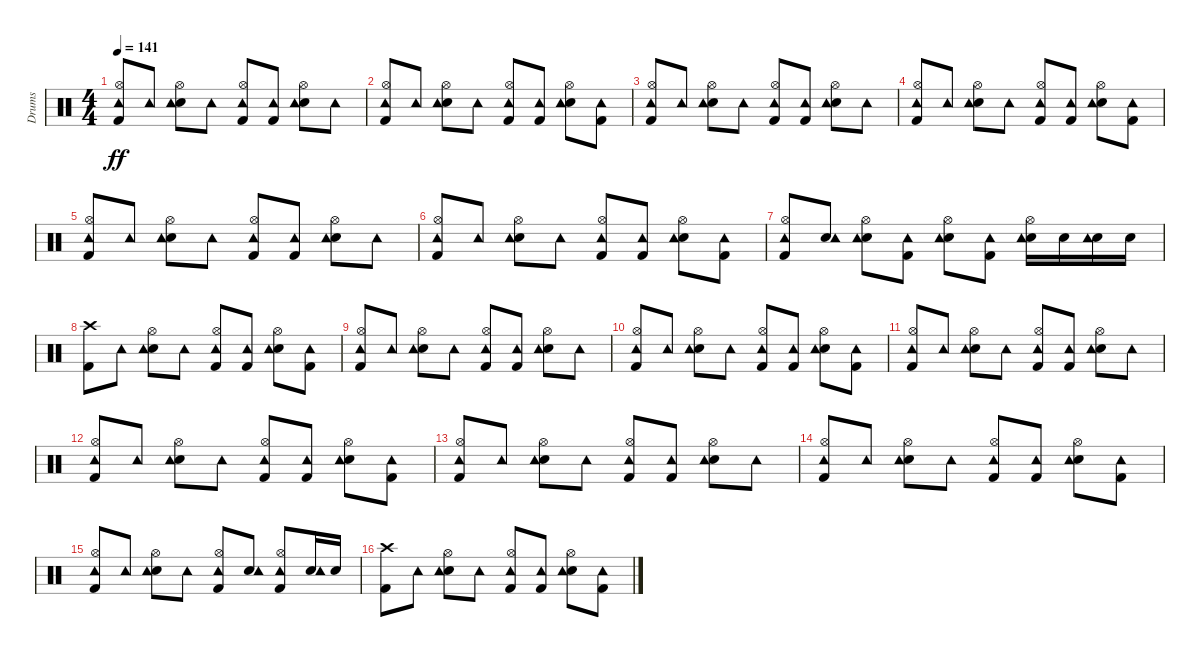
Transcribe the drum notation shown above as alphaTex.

\track ("Drums" "Drums") {instrument percussion}
\staff {score}
\articulation defaults
\ts (4 4)
\tempo 141
\clef neutral
\ks c
("Kick (hit) 2" "Hi-Hat (open)" "Tambourine (hit)").8{dy ff} "Tambourine (hit)".8 ("Snare (hit) 2" "Hi-Hat (open)" "Tambourine (hit)").8 "Tambourine (hit)".8 ("Kick (hit) 2" "Hi-Hat (open)" "Tambourine (hit)").8 ("Kick (hit) 2" "Tambourine (hit)").8 ("Snare (hit) 2" "Hi-Hat (open)" "Tambourine (hit)").8 "Tambourine (hit)".8 |
("Kick (hit) 2" "Hi-Hat (open)" "Tambourine (hit)").8 "Tambourine (hit)".8 ("Snare (hit) 2" "Hi-Hat (open)" "Tambourine (hit)").8 "Tambourine (hit)".8 ("Kick (hit) 2" "Hi-Hat (open)" "Tambourine (hit)").8 ("Kick (hit) 2" "Tambourine (hit)").8 ("Snare (hit) 2" "Hi-Hat (open)" "Tambourine (hit)").8 ("Kick (hit) 2" "Tambourine (hit)").8 |
("Kick (hit) 2" "Hi-Hat (open)" "Tambourine (hit)").8 "Tambourine (hit)".8 ("Snare (hit) 2" "Hi-Hat (open)" "Tambourine (hit)").8 "Tambourine (hit)".8 ("Kick (hit) 2" "Hi-Hat (open)" "Tambourine (hit)").8 ("Kick (hit) 2" "Tambourine (hit)").8 ("Snare (hit) 2" "Hi-Hat (open)" "Tambourine (hit)").8 "Tambourine (hit)".8 |
("Kick (hit) 2" "Hi-Hat (open)" "Tambourine (hit)").8 "Tambourine (hit)".8 ("Snare (hit) 2" "Hi-Hat (open)" "Tambourine (hit)").8 "Tambourine (hit)".8 ("Kick (hit) 2" "Hi-Hat (open)" "Tambourine (hit)").8 ("Kick (hit) 2" "Tambourine (hit)").8 ("Snare (hit) 2" "Hi-Hat (open)" "Tambourine (hit)").8 ("Kick (hit) 2" "Tambourine (hit)").8 |
("Kick (hit) 2" "Hi-Hat (open)" "Tambourine (hit)").8 "Tambourine (hit)".8 ("Snare (hit) 2" "Hi-Hat (open)" "Tambourine (hit)").8 "Tambourine (hit)".8 ("Kick (hit) 2" "Hi-Hat (open)" "Tambourine (hit)").8 ("Kick (hit) 2" "Tambourine (hit)").8 ("Snare (hit) 2" "Hi-Hat (open)" "Tambourine (hit)").8 "Tambourine (hit)".8 |
("Kick (hit) 2" "Hi-Hat (open)" "Tambourine (hit)").8 "Tambourine (hit)".8 ("Snare (hit) 2" "Hi-Hat (open)" "Tambourine (hit)").8 "Tambourine (hit)".8 ("Kick (hit) 2" "Hi-Hat (open)" "Tambourine (hit)").8 ("Kick (hit) 2" "Tambourine (hit)").8 ("Snare (hit) 2" "Hi-Hat (open)" "Tambourine (hit)").8 ("Kick (hit) 2" "Tambourine (hit)").8 |
("Kick (hit) 2" "Hi-Hat (open)" "Tambourine (hit)").8 ("Snare (hit) 2" "Tambourine (hit)").8 ("Snare (hit) 2" "Hi-Hat (open)" "Tambourine (hit)").8 ("Kick (hit) 2" "Tambourine (hit)").8 ("Snare (hit) 2" "Hi-Hat (open)" "Tambourine (hit)").8 ("Kick (hit) 2" "Tambourine (hit)").8 ("Snare (hit) 2" "Hi-Hat (open)" "Tambourine (hit)").16 "Snare (hit) 2".16 ("Snare (hit) 2" "Tambourine (hit)").16 "Snare (hit) 2".16 |
("Kick (hit) 2" "Crash high (hit)").8 "Tambourine (hit)".8 ("Snare (hit) 2" "Hi-Hat (open)" "Tambourine (hit)").8 "Tambourine (hit)".8 ("Kick (hit) 2" "Hi-Hat (open)" "Tambourine (hit)").8 ("Kick (hit) 2" "Tambourine (hit)").8 ("Snare (hit) 2" "Hi-Hat (open)" "Tambourine (hit)").8 ("Kick (hit) 2" "Tambourine (hit)").8 |
("Kick (hit) 2" "Hi-Hat (open)" "Tambourine (hit)").8 "Tambourine (hit)".8 ("Snare (hit) 2" "Hi-Hat (open)" "Tambourine (hit)").8 "Tambourine (hit)".8 ("Kick (hit) 2" "Hi-Hat (open)" "Tambourine (hit)").8 ("Kick (hit) 2" "Tambourine (hit)").8 ("Snare (hit) 2" "Hi-Hat (open)" "Tambourine (hit)").8 "Tambourine (hit)".8 |
("Kick (hit) 2" "Hi-Hat (open)" "Tambourine (hit)").8 "Tambourine (hit)".8 ("Snare (hit) 2" "Hi-Hat (open)" "Tambourine (hit)").8 "Tambourine (hit)".8 ("Kick (hit) 2" "Hi-Hat (open)" "Tambourine (hit)").8 ("Kick (hit) 2" "Tambourine (hit)").8 ("Snare (hit) 2" "Hi-Hat (open)" "Tambourine (hit)").8 ("Kick (hit) 2" "Tambourine (hit)").8 |
("Kick (hit) 2" "Hi-Hat (open)" "Tambourine (hit)").8 "Tambourine (hit)".8 ("Snare (hit) 2" "Hi-Hat (open)" "Tambourine (hit)").8 "Tambourine (hit)".8 ("Kick (hit) 2" "Hi-Hat (open)" "Tambourine (hit)").8 ("Kick (hit) 2" "Tambourine (hit)").8 ("Snare (hit) 2" "Hi-Hat (open)" "Tambourine (hit)").8 "Tambourine (hit)".8 |
("Kick (hit) 2" "Hi-Hat (open)" "Tambourine (hit)").8 "Tambourine (hit)".8 ("Snare (hit) 2" "Hi-Hat (open)" "Tambourine (hit)").8 "Tambourine (hit)".8 ("Kick (hit) 2" "Hi-Hat (open)" "Tambourine (hit)").8 ("Kick (hit) 2" "Tambourine (hit)").8 ("Snare (hit) 2" "Hi-Hat (open)" "Tambourine (hit)").8 ("Kick (hit) 2" "Tambourine (hit)").8 |
("Kick (hit) 2" "Hi-Hat (open)" "Tambourine (hit)").8 "Tambourine (hit)".8 ("Snare (hit) 2" "Hi-Hat (open)" "Tambourine (hit)").8 "Tambourine (hit)".8 ("Kick (hit) 2" "Hi-Hat (open)" "Tambourine (hit)").8 ("Kick (hit) 2" "Tambourine (hit)").8 ("Snare (hit) 2" "Hi-Hat (open)" "Tambourine (hit)").8 "Tambourine (hit)".8 |
("Kick (hit) 2" "Hi-Hat (open)" "Tambourine (hit)").8 "Tambourine (hit)".8 ("Snare (hit) 2" "Hi-Hat (open)" "Tambourine (hit)").8 "Tambourine (hit)".8 ("Kick (hit) 2" "Hi-Hat (open)" "Tambourine (hit)").8 ("Kick (hit) 2" "Tambourine (hit)").8 ("Snare (hit) 2" "Hi-Hat (open)" "Tambourine (hit)").8 ("Kick (hit) 2" "Tambourine (hit)").8 |
("Kick (hit) 2" "Hi-Hat (open)" "Tambourine (hit)").8 "Tambourine (hit)".8 ("Snare (hit) 2" "Hi-Hat (open)" "Tambourine (hit)").8 "Tambourine (hit)".8 ("Kick (hit) 2" "Hi-Hat (open)" "Tambourine (hit)").8 ("Snare (hit) 2" "Tambourine (hit)").8 ("Kick (hit) 2" "Hi-Hat (open)" "Tambourine (hit)").8 ("Snare (hit) 2" "Tambourine (hit)").16 "Snare (hit) 2".16 |
("Kick (hit) 2" "Crash high (hit)").8 "Tambourine (hit)".8 ("Snare (hit) 2" "Hi-Hat (open)" "Tambourine (hit)").8 "Tambourine (hit)".8 ("Kick (hit) 2" "Hi-Hat (open)" "Tambourine (hit)").8 ("Kick (hit) 2" "Tambourine (hit)").8 ("Snare (hit) 2" "Hi-Hat (open)" "Tambourine (hit)").8 ("Kick (hit) 2" "Tambourine (hit)").8
